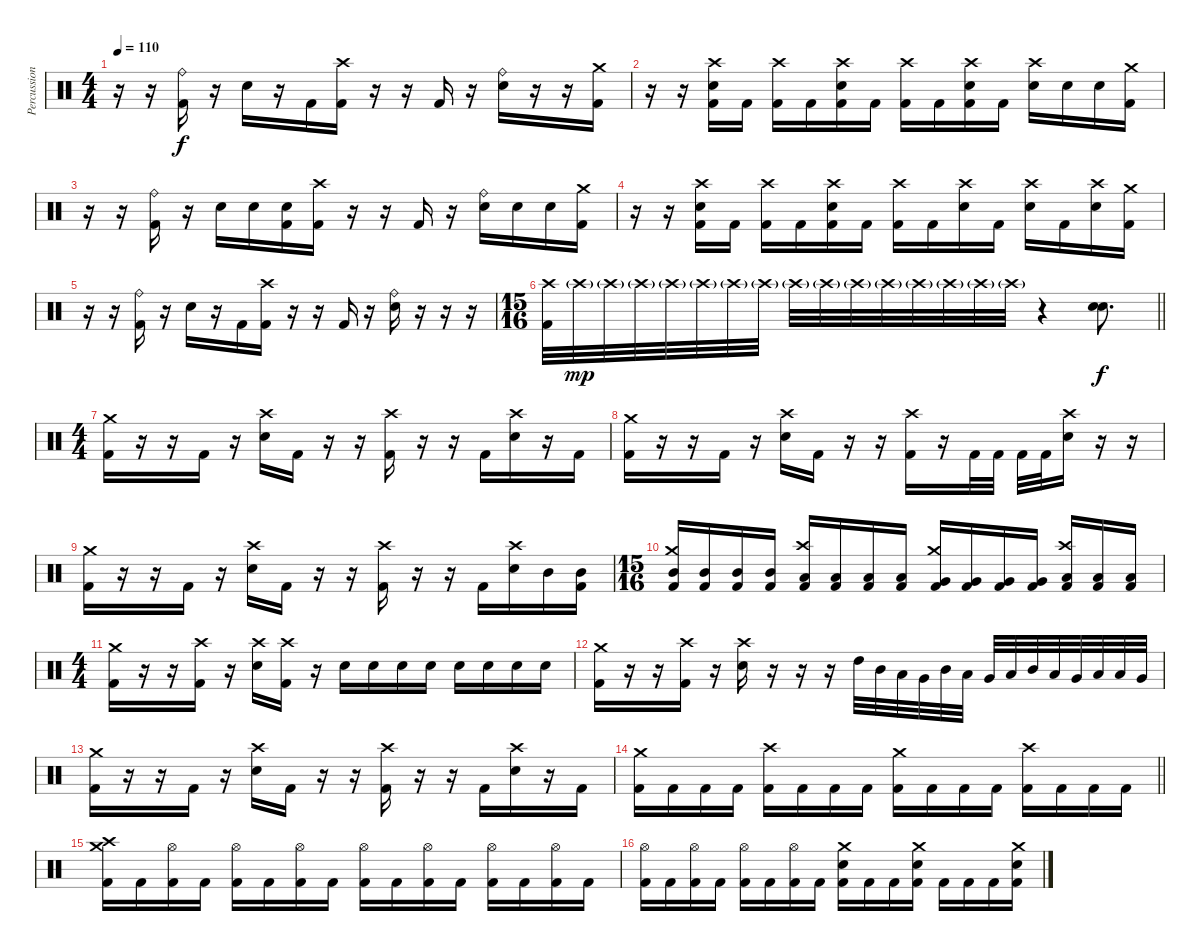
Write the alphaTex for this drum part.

\track ("Percussion (Moose)" "Percussion") {instrument percussion}
\staff {score}
\articulation defaults
\ts (4 4)
\tempo 110
\clef neutral
\ks c
r.16{dy f} r.16 ("Ride (bell)" "Kick (hit) 2").16 r.16 "Electric Snare (hit)".16 r.16 "Kick (hit) 2".16 ("Crash high (hit)" "Kick (hit) 2").16 r.16 r.16 "Kick (hit) 2".16 r.16 ("Ride (bell)" "Electric Snare (hit)").16 r.16 r.16 ("Crash medium (hit)" "Kick (hit) 2").16 |
r.16 r.16 ("Crash high (hit)" "Electric Snare (hit)" "Kick (hit) 2").16 "Kick (hit) 2".16 ("Crash high (hit)" "Kick (hit) 2").16 "Kick (hit) 2".16 ("Crash high (hit)" "Electric Snare (hit)" "Kick (hit) 2").16 "Kick (hit) 2".16 ("Crash high (hit)" "Kick (hit) 2").16 "Kick (hit) 2".16 ("Crash high (hit)" "Electric Snare (hit)" "Kick (hit) 2").16 "Kick (hit) 2".16 ("Crash high (hit)" "Electric Snare (hit)").16 "Electric Snare (hit)".16 "Electric Snare (hit)".16 ("Crash medium (hit)" "Kick (hit) 2").16 |
r.16 r.16 ("Ride (bell)" "Kick (hit) 2").16 r.16 "Electric Snare (hit)".16 "Electric Snare (hit)".16 ("Electric Snare (hit)" "Kick (hit) 2").16 ("Crash high (hit)" "Kick (hit) 2").16 r.16 r.16 "Kick (hit) 2".16 r.16 ("Ride (bell)" "Electric Snare (hit)").16 "Electric Snare (hit)".16 "Electric Snare (hit)".16 ("Crash medium (hit)" "Kick (hit) 2").16 |
r.16 r.16 ("Crash high (hit)" "Electric Snare (hit)" "Kick (hit) 2").16 "Kick (hit) 2".16 ("Crash high (hit)" "Kick (hit) 2").16 "Kick (hit) 2".16 ("Crash high (hit)" "Electric Snare (hit)" "Kick (hit) 2").16 "Kick (hit) 2".16 ("Crash high (hit)" "Kick (hit) 2").16 "Kick (hit) 2".16 ("Crash high (hit)" "Electric Snare (hit)").16 "Kick (hit) 2".16 ("Crash high (hit)" "Electric Snare (hit)").16 "Kick (hit) 2".16 ("Crash high (hit)" "Electric Snare (hit)").16 ("Crash medium (hit)" "Kick (hit) 2").16 |
r.16 r.16 ("Ride (bell)" "Kick (hit) 2").16 r.16 "Electric Snare (hit)".16 r.16 "Kick (hit) 2".16 ("Crash high (hit)" "Kick (hit) 2").16 r.16 r.16 "Kick (hit) 2".16 r.16 ("Ride (bell)" "Electric Snare (hit)").16 r.16 r.16 r.16 |
\ts (15 16)
\barLineRight lightlight
("Crash high (hit)" "Kick (hit) 2").32{volume 16} "Crash high (hit)"{g}.32{dy mp} "Crash high (hit)"{g}.32 "Crash high (hit)"{g}.32 "Crash high (hit)"{g}.32 "Crash high (hit)"{g}.32 "Crash high (hit)"{g}.32 "Crash high (hit)"{g}.32 "Crash high (hit)"{g}.32 "Crash high (hit)"{g}.32 "Crash high (hit)"{g}.32 "Crash high (hit)"{g}.32 "Crash high (hit)"{g}.32 "Crash high (hit)"{g}.32 "Crash high (hit)"{g}.32 "Crash high (hit)"{g}.32 r.4 ("Electric Snare (hit)" "Electric Snare (hit)").8{d dy f} |
\ts (4 4)
("Crash medium (hit)" "Kick (hit) 2").16 r.16 r.16 "Kick (hit) 2".16 r.16 ("Crash high (hit)" "Electric Snare (hit)").16 "Kick (hit) 2".16 r.16 r.16 ("Crash high (hit)" "Kick (hit) 2").16 r.16 r.16 "Kick (hit) 2".16 ("Crash high (hit)" "Electric Snare (hit)").16 r.16 "Kick (hit) 2".16 |
("Crash medium (hit)" "Kick (hit) 2").16 r.16 r.16 "Kick (hit) 2".16 r.16 ("Crash high (hit)" "Electric Snare (hit)").16 "Kick (hit) 2".16 r.16 r.16 ("Crash high (hit)" "Kick (hit) 2").16 r.16 "Kick (hit) 2".32 "Kick (hit) 2".32 "Kick (hit) 2".32 "Kick (hit) 2".32 ("Crash high (hit)" "Electric Snare (hit)").16 r.16 r.16 |
("Crash medium (hit)" "Kick (hit) 2").16 r.16 r.16 "Kick (hit) 2".16 r.16 ("Crash high (hit)" "Electric Snare (hit)").16 "Kick (hit) 2".16 r.16 r.16 ("Crash high (hit)" "Kick (hit) 2").16 r.16 r.16 "Kick (hit) 2".16 ("Crash high (hit)" "Electric Snare (hit)").16 "Mid Tom (hit)".16 ("Mid Tom (hit)" "Kick (hit) 2").16 |
\ts (15 16)
("Crash medium (hit)" "Mid Tom (hit)" "Kick (hit) 2").16 ("Mid Tom (hit)" "Kick (hit) 2").16 ("Mid Tom (hit)" "Kick (hit) 2").16 ("Mid Tom (hit)" "Kick (hit) 2").16 ("Crash high (hit)" "Low Tom (hit)" "Kick (hit) 2").16 ("Low Tom (hit)" "Kick (hit) 2").16 ("Low Tom (hit)" "Kick (hit) 2").16 ("Low Tom (hit)" "Kick (hit) 2").16 ("Crash medium (hit)" "Very Low Tom (hit)" "Kick (hit) 2").16 ("Very Low Tom (hit)" "Kick (hit) 2").16 ("Very Low Tom (hit)" "Kick (hit) 2").16 ("Very Low Tom (hit)" "Kick (hit) 2").16 ("Crash high (hit)" "Low Floor Tom (hit)" "Kick (hit) 2").16 ("Low Floor Tom (hit)" "Kick (hit) 2").16 ("Low Floor Tom (hit)" "Kick (hit) 2").16 |
\ts (4 4)
("Crash medium (hit)" "Kick (hit) 2").16 r.16 r.16 ("Crash high (hit)" "Kick (hit) 2").16 r.16 ("Crash high (hit)" "Electric Snare (hit)").16 ("Crash high (hit)" "Kick (hit) 2").16 r.16 "Electric Snare (hit)".16 "Electric Snare (hit)".16 "Electric Snare (hit)".16 "Electric Snare (hit)".16 "Electric Snare (hit)".16 "Electric Snare (hit)".16 "Electric Snare (hit)".16 "Electric Snare (hit)".16 |
("Crash medium (hit)" "Kick (hit) 2").16 r.16 r.16 ("Crash high (hit)" "Kick (hit) 2").16 r.16 ("Crash high (hit)" "Electric Snare (hit)").16 r.16 r.16 r.16 "High Tom (hit)".32 "Mid Tom (hit)".32 "Low Tom (hit)".32 "Very Low Tom (hit)".32 "Mid Tom (hit)".32 "Low Tom (hit)".32 "Very Low Tom (hit)".32 "Low Floor Tom (hit)".32 "Mid Tom (hit)".32 "Low Tom (hit)".32 "Very Low Tom (hit)".32 "Low Floor Tom (hit)".32 "Low Tom (hit)".32 "Very Low Tom (hit)".32 |
("Crash medium (hit)" "Kick (hit) 2").16 r.16 r.16 "Kick (hit) 2".16 r.16 ("Crash high (hit)" "Electric Snare (hit)").16 "Kick (hit) 2".16 r.16 r.16 ("Crash high (hit)" "Kick (hit) 2").16 r.16 r.16 "Kick (hit) 2".16 ("Crash high (hit)" "Electric Snare (hit)").16 r.16 "Kick (hit) 2".16 |
\barLineRight lightlight
("Crash medium (hit)" "Kick (hit) 2").16 "Kick (hit) 2".16 "Kick (hit) 2".16 "Kick (hit) 2".16 ("Crash high (hit)" "Kick (hit) 2").16 "Kick (hit) 2".16 "Kick (hit) 2".16 "Kick (hit) 2".16 ("Crash medium (hit)" "Kick (hit) 2").16 "Kick (hit) 2".16 "Kick (hit) 2".16 "Kick (hit) 2".16 ("Crash high (hit)" "Kick (hit) 2").16 "Kick (hit) 2".16 "Kick (hit) 2".16 "Kick (hit) 2".16 |
("Crash medium (hit)" "Crash high (hit)" "Kick (hit) 2").16 "Kick (hit) 2".16 ("Hi-Hat (open)" "Kick (hit) 2").16 "Kick (hit) 2".16 ("Hi-Hat (open)" "Kick (hit) 2").16 "Kick (hit) 2".16 ("Hi-Hat (open)" "Kick (hit) 2").16 "Kick (hit) 2".16 ("Hi-Hat (open)" "Kick (hit) 2").16 "Kick (hit) 2".16 ("Hi-Hat (open)" "Kick (hit) 2").16 "Kick (hit) 2".16 ("Hi-Hat (open)" "Kick (hit) 2").16 "Kick (hit) 2".16 ("Hi-Hat (open)" "Kick (hit) 2").16 "Kick (hit) 2".16 |
("Hi-Hat (open)" "Kick (hit) 2").16 "Kick (hit) 2".16 ("Hi-Hat (open)" "Kick (hit) 2").16 "Kick (hit) 2".16 ("Hi-Hat (open)" "Kick (hit) 2").16 "Kick (hit) 2".16 ("Hi-Hat (open)" "Kick (hit) 2").16 "Kick (hit) 2".16 ("Crash medium (hit)" "Electric Snare (hit)" "Kick (hit) 2").16 "Kick (hit) 2".16 "Kick (hit) 2".16 ("Crash medium (hit)" "Electric Snare (hit)" "Kick (hit) 2").16 "Kick (hit) 2".16 "Kick (hit) 2".16 "Kick (hit) 2".16 ("Crash medium (hit)" "Electric Snare (hit)" "Kick (hit) 2").16
